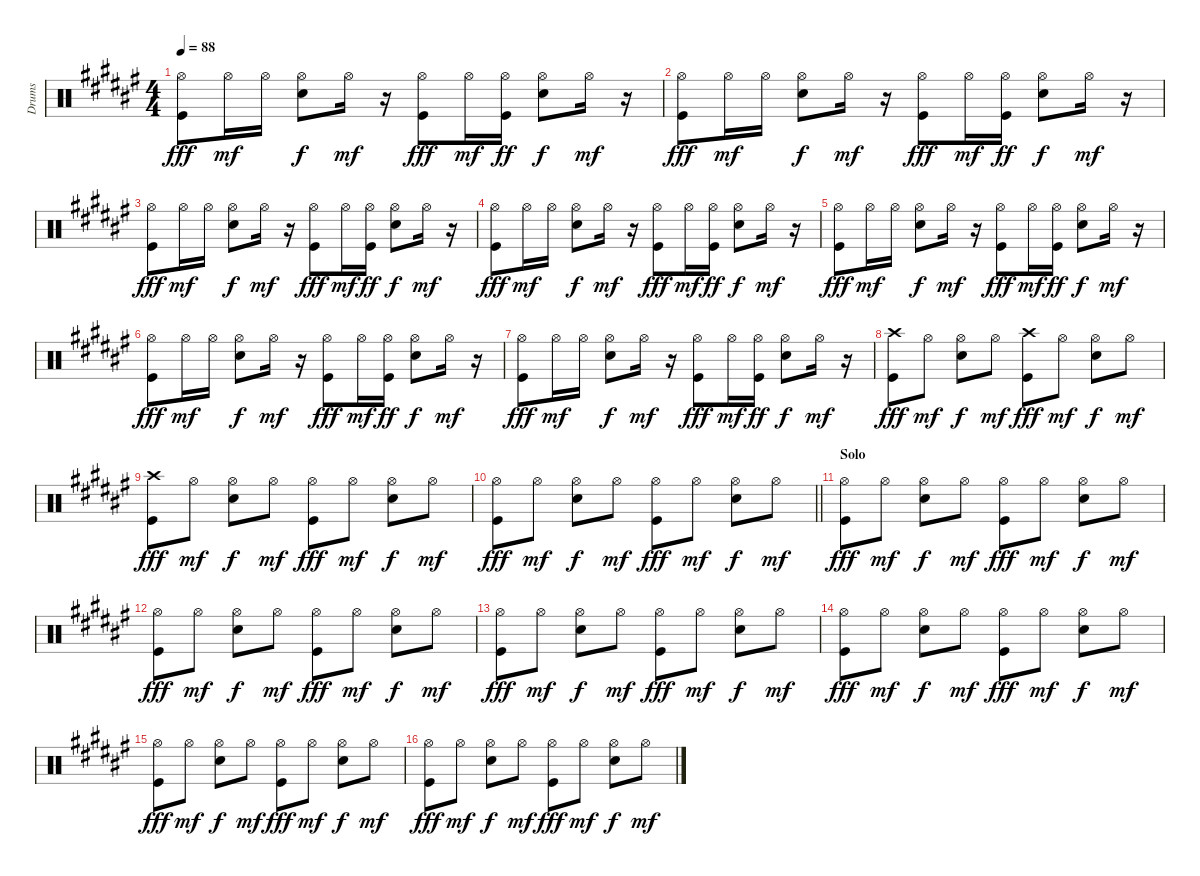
\track ("Drums" "Drums") {instrument percussion}
\staff {score}
\articulation defaults
\ts (4 4)
\tempo 88
\clef neutral
\ks f#
("Hi-Hat (open)" "Kick (hit)").8{dy fff} "Hi-Hat (open)".16{dy mf} "Hi-Hat (open)".16 ("Hi-Hat (open)" "Snare (hit) 2").8{dy f} "Hi-Hat (open)".16{dy mf} r.16 ("Hi-Hat (open)" "Kick (hit)").8{dy fff} "Hi-Hat (open)".16{dy mf} ("Hi-Hat (open)" "Kick (hit)").16{dy ff} ("Hi-Hat (open)" "Snare (hit) 2").8{dy f} "Hi-Hat (open)".16{dy mf} r.16 |
("Hi-Hat (open)" "Kick (hit)").8{dy fff} "Hi-Hat (open)".16{dy mf} "Hi-Hat (open)".16 ("Hi-Hat (open)" "Snare (hit) 2").8{dy f} "Hi-Hat (open)".16{dy mf} r.16 ("Hi-Hat (open)" "Kick (hit)").8{dy fff} "Hi-Hat (open)".16{dy mf} ("Hi-Hat (open)" "Kick (hit)").16{dy ff} ("Hi-Hat (open)" "Snare (hit) 2").8{dy f} "Hi-Hat (open)".16{dy mf} r.16 |
("Hi-Hat (open)" "Kick (hit)").8{dy fff} "Hi-Hat (open)".16{dy mf} "Hi-Hat (open)".16 ("Hi-Hat (open)" "Snare (hit) 2").8{dy f} "Hi-Hat (open)".16{dy mf} r.16 ("Hi-Hat (open)" "Kick (hit)").8{dy fff} "Hi-Hat (open)".16{dy mf} ("Hi-Hat (open)" "Kick (hit)").16{dy ff} ("Hi-Hat (open)" "Snare (hit) 2").8{dy f} "Hi-Hat (open)".16{dy mf} r.16 |
("Hi-Hat (open)" "Kick (hit)").8{dy fff} "Hi-Hat (open)".16{dy mf} "Hi-Hat (open)".16 ("Hi-Hat (open)" "Snare (hit) 2").8{dy f} "Hi-Hat (open)".16{dy mf} r.16 ("Hi-Hat (open)" "Kick (hit)").8{dy fff} "Hi-Hat (open)".16{dy mf} ("Hi-Hat (open)" "Kick (hit)").16{dy ff} ("Hi-Hat (open)" "Snare (hit) 2").8{dy f} "Hi-Hat (open)".16{dy mf} r.16 |
("Hi-Hat (open)" "Kick (hit)").8{dy fff} "Hi-Hat (open)".16{dy mf} "Hi-Hat (open)".16 ("Hi-Hat (open)" "Snare (hit) 2").8{dy f} "Hi-Hat (open)".16{dy mf} r.16 ("Hi-Hat (open)" "Kick (hit)").8{dy fff} "Hi-Hat (open)".16{dy mf} ("Hi-Hat (open)" "Kick (hit)").16{dy ff} ("Hi-Hat (open)" "Snare (hit) 2").8{dy f} "Hi-Hat (open)".16{dy mf} r.16 |
("Hi-Hat (open)" "Kick (hit)").8{dy fff} "Hi-Hat (open)".16{dy mf} "Hi-Hat (open)".16 ("Hi-Hat (open)" "Snare (hit) 2").8{dy f} "Hi-Hat (open)".16{dy mf} r.16 ("Hi-Hat (open)" "Kick (hit)").8{dy fff} "Hi-Hat (open)".16{dy mf} ("Hi-Hat (open)" "Kick (hit)").16{dy ff} ("Hi-Hat (open)" "Snare (hit) 2").8{dy f} "Hi-Hat (open)".16{dy mf} r.16 |
("Hi-Hat (open)" "Kick (hit)").8{dy fff} "Hi-Hat (open)".16{dy mf} "Hi-Hat (open)".16 ("Hi-Hat (open)" "Snare (hit) 2").8{dy f} "Hi-Hat (open)".16{dy mf} r.16 ("Hi-Hat (open)" "Kick (hit)").8{dy fff} "Hi-Hat (open)".16{dy mf} ("Hi-Hat (open)" "Kick (hit)").16{dy ff} ("Hi-Hat (open)" "Snare (hit) 2").8{dy f} "Hi-Hat (open)".16{dy mf} r.16 |
("Crash high (hit)" "Kick (hit)").8{dy fff} "Hi-Hat (open)".8{dy mf} ("Hi-Hat (open)" "Snare (hit) 2").8{dy f} "Hi-Hat (open)".8{dy mf} ("Crash high (hit)" "Kick (hit)").8{dy fff} "Hi-Hat (open)".8{dy mf} ("Hi-Hat (open)" "Snare (hit) 2").8{dy f} "Hi-Hat (open)".8{dy mf} |
("Crash high (hit)" "Kick (hit)").8{dy fff} "Hi-Hat (open)".8{dy mf} ("Hi-Hat (open)" "Snare (hit) 2").8{dy f} "Hi-Hat (open)".8{dy mf} ("Hi-Hat (open)" "Kick (hit)").8{dy fff} "Hi-Hat (open)".8{dy mf} ("Hi-Hat (open)" "Snare (hit) 2").8{dy f} "Hi-Hat (open)".8{dy mf} |
\barLineRight lightlight
("Hi-Hat (open)" "Kick (hit)").8{dy fff} "Hi-Hat (open)".8{dy mf} ("Hi-Hat (open)" "Snare (hit) 2").8{dy f} "Hi-Hat (open)".8{dy mf} ("Hi-Hat (open)" "Kick (hit)").8{dy fff} "Hi-Hat (open)".8{dy mf} ("Hi-Hat (open)" "Snare (hit) 2").8{dy f} "Hi-Hat (open)".8{dy mf} |
\section ("" "Solo")
("Hi-Hat (open)" "Kick (hit)").8{dy fff} "Hi-Hat (open)".8{dy mf} ("Hi-Hat (open)" "Snare (hit) 2").8{dy f} "Hi-Hat (open)".8{dy mf} ("Hi-Hat (open)" "Kick (hit)").8{dy fff} "Hi-Hat (open)".8{dy mf} ("Hi-Hat (open)" "Snare (hit) 2").8{dy f} "Hi-Hat (open)".8{dy mf} |
("Hi-Hat (open)" "Kick (hit)").8{dy fff} "Hi-Hat (open)".8{dy mf} ("Hi-Hat (open)" "Snare (hit) 2").8{dy f} "Hi-Hat (open)".8{dy mf} ("Hi-Hat (open)" "Kick (hit)").8{dy fff} "Hi-Hat (open)".8{dy mf} ("Hi-Hat (open)" "Snare (hit) 2").8{dy f} "Hi-Hat (open)".8{dy mf} |
("Hi-Hat (open)" "Kick (hit)").8{dy fff} "Hi-Hat (open)".8{dy mf} ("Hi-Hat (open)" "Snare (hit) 2").8{dy f} "Hi-Hat (open)".8{dy mf} ("Hi-Hat (open)" "Kick (hit)").8{dy fff} "Hi-Hat (open)".8{dy mf} ("Hi-Hat (open)" "Snare (hit) 2").8{dy f} "Hi-Hat (open)".8{dy mf} |
("Hi-Hat (open)" "Kick (hit)").8{dy fff} "Hi-Hat (open)".8{dy mf} ("Hi-Hat (open)" "Snare (hit) 2").8{dy f} "Hi-Hat (open)".8{dy mf} ("Hi-Hat (open)" "Kick (hit)").8{dy fff} "Hi-Hat (open)".8{dy mf} ("Hi-Hat (open)" "Snare (hit) 2").8{dy f} "Hi-Hat (open)".8{dy mf} |
("Hi-Hat (open)" "Kick (hit)").8{dy fff} "Hi-Hat (open)".8{dy mf} ("Hi-Hat (open)" "Snare (hit) 2").8{dy f} "Hi-Hat (open)".8{dy mf} ("Hi-Hat (open)" "Kick (hit)").8{dy fff} "Hi-Hat (open)".8{dy mf} ("Hi-Hat (open)" "Snare (hit) 2").8{dy f} "Hi-Hat (open)".8{dy mf} |
("Hi-Hat (open)" "Kick (hit)").8{dy fff} "Hi-Hat (open)".8{dy mf} ("Hi-Hat (open)" "Snare (hit) 2").8{dy f} "Hi-Hat (open)".8{dy mf} ("Hi-Hat (open)" "Kick (hit)").8{dy fff} "Hi-Hat (open)".8{dy mf} ("Hi-Hat (open)" "Snare (hit) 2").8{dy f} "Hi-Hat (open)".8{dy mf}
